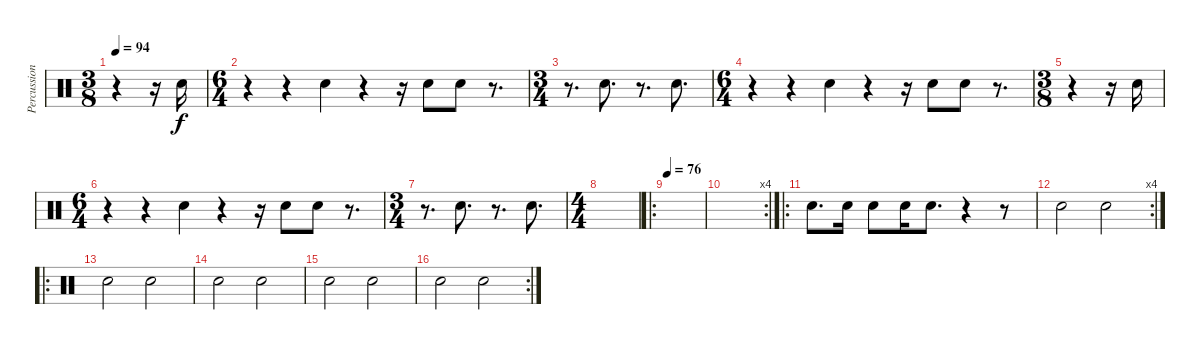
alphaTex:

\track ("Percussion" "Percussion") {instrument percussion}
\staff {score}
\articulation defaults
\ts (3 8)
\tempo 94
\clef neutral
\ks c
r.4{dy f} r.16 "Electric Snare (hit)".16 |
\ts (6 4)
r.4 r.4 "Electric Snare (hit)".4 r.4 r.16 "Electric Snare (hit)".8 "Electric Snare (hit)".8 r.8{d} |
\ts (3 4)
r.8{d} "Electric Snare (hit)".8{d} r.8{d} "Electric Snare (hit)".8{d} |
\ts (6 4)
r.4 r.4 "Electric Snare (hit)".4 r.4 r.16 "Electric Snare (hit)".8 "Electric Snare (hit)".8 r.8{d} |
\ts (3 8)
r.4 r.16 "Electric Snare (hit)".16 |
\ts (6 4)
r.4 r.4 "Electric Snare (hit)".4 r.4 r.16 "Electric Snare (hit)".8 "Electric Snare (hit)".8 r.8{d} |
\ts (3 4)
r.8{d} "Electric Snare (hit)".8{d} r.8{d} "Electric Snare (hit)".8{d} |
\ts (4 4)
|
\ro
\tempo 76
|
\rc 4
|
\ro "Electric Snare (hit)".8{d} "Electric Snare (hit)".16 "Electric Snare (hit)".8 "Electric Snare (hit)".16 "Electric Snare (hit)".8{d}
r.4 r.8 |
\rc 4 "Electric Snare (hit)".2 "Electric Snare (hit)".2
|
\ro "Electric Snare (hit)".2 "Electric Snare (hit)".2
|
"Electric Snare (hit)".2 "Electric Snare (hit)".2 |
"Electric Snare (hit)".2 "Electric Snare (hit)".2 |
\rc 2 "Electric Snare (hit)".2 "Electric Snare (hit)".2
